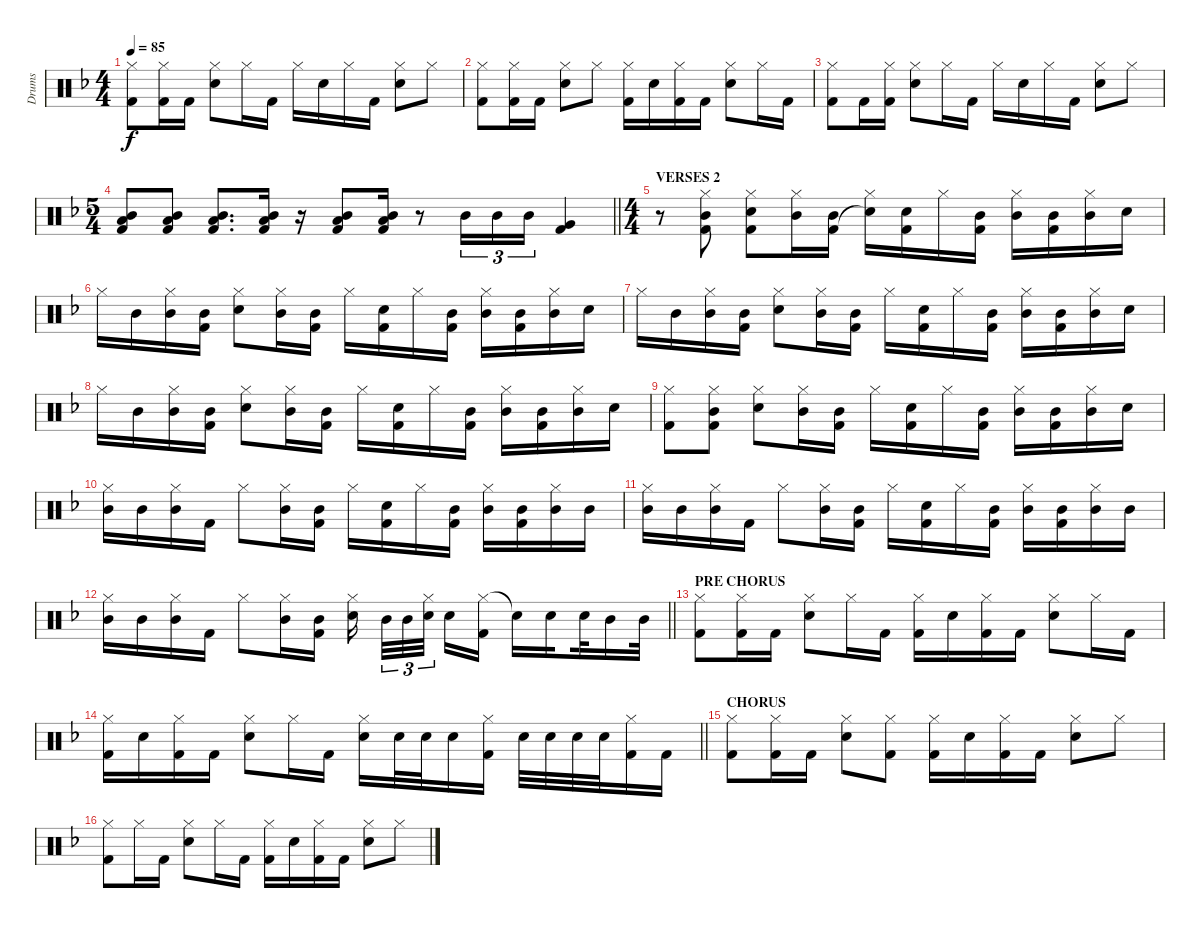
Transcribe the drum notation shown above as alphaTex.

\track ("Drums" "Drums") {instrument percussion}
\staff {score}
\articulation defaults
\ts (4 4)
\tempo 85
\clef neutral
\ks dminor
("Hi-Hat (closed)" "Kick (hit) 2").8{dy f} ("Hi-Hat (closed)" "Kick (hit) 2").16 "Kick (hit) 2".16 ("Hi-Hat (closed)" "Electric Snare (hit)").8 "Hi-Hat (closed)".16 "Kick (hit) 2".16 "Hi-Hat (closed)".16 "Electric Snare (hit)".16 "Hi-Hat (closed)".16 "Kick (hit) 2".16 ("Hi-Hat (closed)" "Electric Snare (hit)").8 "Hi-Hat (closed)".8 |
("Hi-Hat (closed)" "Kick (hit) 2").8 ("Hi-Hat (closed)" "Kick (hit) 2").16 "Kick (hit) 2".16 ("Hi-Hat (closed)" "Electric Snare (hit)").8 "Hi-Hat (closed)".8 ("Hi-Hat (closed)" "Kick (hit) 2").16 "Electric Snare (hit)".16 ("Hi-Hat (closed)" "Kick (hit) 2").16 "Kick (hit) 2".16 ("Hi-Hat (closed)" "Electric Snare (hit)").8 "Hi-Hat (closed)".16 "Kick (hit) 2".16 |
("Hi-Hat (closed)" "Kick (hit) 2").8 "Kick (hit) 2".16 ("Hi-Hat (closed)" "Kick (hit) 2").16 ("Hi-Hat (closed)" "Electric Snare (hit)").8 "Hi-Hat (closed)".16 "Kick (hit) 2".16 "Hi-Hat (closed)".16 "Electric Snare (hit)".16 "Hi-Hat (closed)".16 "Kick (hit) 2".16 ("Hi-Hat (closed)" "Electric Snare (hit)").8 "Hi-Hat (closed)".8 |
\ts (5 4)
\barLineRight lightlight
("Low Tom (hit)" "Mid Tom (hit)" "Kick (hit) 2").8 ("Low Tom (hit)" "Mid Tom (hit)" "Kick (hit) 2").8 ("Low Tom (hit)" "Mid Tom (hit)" "Kick (hit) 2").8{d} ("Low Tom (hit)" "Mid Tom (hit)" "Kick (hit) 2").16 r.16 ("Low Tom (hit)" "Mid Tom (hit)" "Kick (hit) 2").8 ("Low Tom (hit)" "Mid Tom (hit)" "Kick (hit) 2").16 r.8 "Mid Tom (hit)".16{tu (3 2)} "Mid Tom (hit)".16{tu (3 2)} "Mid Tom (hit)".16{tu (3 2)} ("Very Low Tom (hit)" "Kick (hit) 2").4 |
\ts (4 4)
\section ("" "VERSES 2")
r.8 ("Hi-Hat (closed)" "Mid Tom (hit)" "Kick (hit) 2").8 ("Hi-Hat (closed)" "Electric Snare (hit)" "Kick (hit) 2").8 ("Hi-Hat (closed)" "Mid Tom (hit)").16 ("Mid Tom (hit)" "Kick (hit) 2").16 ("Hi-Hat (closed)" "Snare (hit)"{t}).16 ("Electric Snare (hit)" "Kick (hit) 2").16 "Hi-Hat (closed)".16 ("Mid Tom (hit)" "Kick (hit) 2").16 ("Hi-Hat (closed)" "Mid Tom (hit)").16 ("Mid Tom (hit)" "Kick (hit) 2").16 ("Hi-Hat (closed)" "Mid Tom (hit)").16 "Electric Snare (hit)".16 |
"Hi-Hat (closed)".16 "Mid Tom (hit)".16 ("Hi-Hat (closed)" "Mid Tom (hit)").16 ("Mid Tom (hit)" "Kick (hit) 2").16 ("Hi-Hat (closed)" "Electric Snare (hit)").8 ("Hi-Hat (closed)" "Mid Tom (hit)").16 ("Mid Tom (hit)" "Kick (hit) 2").16 "Hi-Hat (closed)".16 ("Electric Snare (hit)" "Kick (hit) 2").16 "Hi-Hat (closed)".16 ("Mid Tom (hit)" "Kick (hit) 2").16 ("Hi-Hat (closed)" "Mid Tom (hit)").16 ("Mid Tom (hit)" "Kick (hit) 2").16 ("Hi-Hat (closed)" "Mid Tom (hit)").16 "Electric Snare (hit)".16 |
"Hi-Hat (closed)".16 "Mid Tom (hit)".16 ("Hi-Hat (closed)" "Mid Tom (hit)").16 ("Mid Tom (hit)" "Kick (hit) 2").16 ("Hi-Hat (closed)" "Electric Snare (hit)").8 ("Hi-Hat (closed)" "Mid Tom (hit)").16 ("Mid Tom (hit)" "Kick (hit) 2").16 "Hi-Hat (closed)".16 ("Electric Snare (hit)" "Kick (hit) 2").16 "Hi-Hat (closed)".16 ("Mid Tom (hit)" "Kick (hit) 2").16 ("Hi-Hat (closed)" "Mid Tom (hit)").16 ("Mid Tom (hit)" "Kick (hit) 2").16 ("Hi-Hat (closed)" "Mid Tom (hit)").16 "Electric Snare (hit)".16 |
"Hi-Hat (closed)".16 "Mid Tom (hit)".16 ("Hi-Hat (closed)" "Mid Tom (hit)").16 ("Mid Tom (hit)" "Kick (hit) 2").16 ("Hi-Hat (closed)" "Electric Snare (hit)").8 ("Hi-Hat (closed)" "Mid Tom (hit)").16 ("Mid Tom (hit)" "Kick (hit) 2").16 "Hi-Hat (closed)".16 ("Electric Snare (hit)" "Kick (hit) 2").16 "Hi-Hat (closed)".16 ("Mid Tom (hit)" "Kick (hit) 2").16 ("Hi-Hat (closed)" "Mid Tom (hit)").16 ("Mid Tom (hit)" "Kick (hit) 2").16 ("Hi-Hat (closed)" "Mid Tom (hit)").16 "Electric Snare (hit)".16 |
("Hi-Hat (closed)" "Kick (hit) 2").8 ("Hi-Hat (closed)" "Mid Tom (hit)" "Kick (hit) 2").8 ("Hi-Hat (closed)" "Electric Snare (hit)").8 ("Hi-Hat (closed)" "Mid Tom (hit)").16 ("Mid Tom (hit)" "Kick (hit) 2").16 "Hi-Hat (closed)".16 ("Electric Snare (hit)" "Kick (hit) 2").16 "Hi-Hat (closed)".16 ("Mid Tom (hit)" "Kick (hit) 2").16 ("Hi-Hat (closed)" "Mid Tom (hit)").16 ("Mid Tom (hit)" "Kick (hit) 2").16 ("Hi-Hat (closed)" "Mid Tom (hit)").16 "Electric Snare (hit)".16 |
("Hi-Hat (closed)" "Mid Tom (hit)").16 "Mid Tom (hit)".16 ("Hi-Hat (closed)" "Mid Tom (hit)").16 "Kick (hit) 2".16 "Hi-Hat (closed)".8 ("Hi-Hat (closed)" "Mid Tom (hit)").16 ("Mid Tom (hit)" "Kick (hit) 2").16 "Hi-Hat (closed)".16 ("Electric Snare (hit)" "Kick (hit) 2").16 "Hi-Hat (closed)".16 ("Mid Tom (hit)" "Kick (hit) 2").16 ("Hi-Hat (closed)" "Mid Tom (hit)").16 ("Mid Tom (hit)" "Kick (hit) 2").16 ("Hi-Hat (closed)" "Mid Tom (hit)").16 "Mid Tom (hit)".16 |
("Hi-Hat (closed)" "Mid Tom (hit)").16 "Mid Tom (hit)".16 ("Hi-Hat (closed)" "Mid Tom (hit)").16 "Kick (hit) 2".16 "Hi-Hat (closed)".8 ("Hi-Hat (closed)" "Mid Tom (hit)").16 ("Mid Tom (hit)" "Kick (hit) 2").16 "Hi-Hat (closed)".16 ("Electric Snare (hit)" "Kick (hit) 2").16 "Hi-Hat (closed)".16 ("Mid Tom (hit)" "Kick (hit) 2").16 ("Hi-Hat (closed)" "Mid Tom (hit)").16 ("Mid Tom (hit)" "Kick (hit) 2").16 ("Hi-Hat (closed)" "Mid Tom (hit)").16 "Mid Tom (hit)".16 |
\barLineRight lightlight
("Hi-Hat (closed)" "Mid Tom (hit)").16 "Mid Tom (hit)".16 ("Hi-Hat (closed)" "Mid Tom (hit)").16 "Kick (hit) 2".16 "Hi-Hat (closed)".8 ("Hi-Hat (closed)" "Mid Tom (hit)").16 ("Mid Tom (hit)" "Kick (hit) 2").16 ("Hi-Hat (closed)" "Electric Snare (hit)").16 "Mid Tom (hit)".32{tu (3 2)} "Mid Tom (hit)".32{tu (3 2)} ("Hi-Hat (closed)" "Electric Snare (hit)").32{tu (3 2) beam splitsecondary} "Electric Snare (hit)".16 ("Hi-Hat (closed)" "Kick (hit) 2").16 "Snare (hit)"{t}.16 "Electric Snare (hit)".16{beam splitsecondary} "Electric Snare (hit)".32 "Mid Tom (hit)".16 "Mid Tom (hit)".32 |
\section ("" "PRE CHORUS")
("Hi-Hat (closed)" "Kick (hit) 2").8 ("Hi-Hat (closed)" "Kick (hit) 2").16 "Kick (hit) 2".16 ("Hi-Hat (closed)" "Electric Snare (hit)").8 "Hi-Hat (closed)".16 "Kick (hit) 2".16 ("Hi-Hat (closed)" "Kick (hit) 2").16 "Electric Snare (hit)".16 ("Hi-Hat (closed)" "Kick (hit) 2").16 "Kick (hit) 2".16 ("Hi-Hat (closed)" "Electric Snare (hit)").8 "Hi-Hat (closed)".16 "Kick (hit) 2".16 |
\barLineRight lightlight
("Hi-Hat (closed)" "Kick (hit) 2").16 "Electric Snare (hit)".16 ("Hi-Hat (closed)" "Kick (hit) 2").16 "Kick (hit) 2".16 ("Hi-Hat (closed)" "Electric Snare (hit)").8 "Hi-Hat (closed)".16 "Kick (hit) 2".16 ("Hi-Hat (closed)" "Electric Snare (hit)").16 "Electric Snare (hit)".32 "Electric Snare (hit)".32 "Electric Snare (hit)".16 ("Hi-Hat (closed)" "Kick (hit) 2").16 "Electric Snare (hit)".32 "Electric Snare (hit)".32 "Electric Snare (hit)".32 "Electric Snare (hit)".32 ("Hi-Hat (closed)" "Kick (hit) 2").16 "Kick (hit) 2".16 |
\section ("" "CHORUS")
("Hi-Hat (closed)" "Kick (hit) 2").8 ("Hi-Hat (closed)" "Kick (hit) 2").16 "Kick (hit) 2".16 ("Hi-Hat (closed)" "Electric Snare (hit)").8 ("Hi-Hat (closed)" "Kick (hit) 2").8 ("Hi-Hat (closed)" "Kick (hit) 2").16 "Electric Snare (hit)".16 ("Hi-Hat (closed)" "Kick (hit) 2").16 "Kick (hit) 2".16 ("Hi-Hat (closed)" "Electric Snare (hit)").8 "Hi-Hat (closed)".8 |
("Hi-Hat (closed)" "Kick (hit) 2").8 "Hi-Hat (closed)".16 "Kick (hit) 2".16 ("Hi-Hat (closed)" "Electric Snare (hit)").8 "Hi-Hat (closed)".16 "Kick (hit) 2".16 ("Hi-Hat (closed)" "Kick (hit) 2").16 "Electric Snare (hit)".16 ("Hi-Hat (closed)" "Kick (hit) 2").16 "Kick (hit) 2".16 ("Hi-Hat (closed)" "Electric Snare (hit)").8 "Hi-Hat (closed)".8
